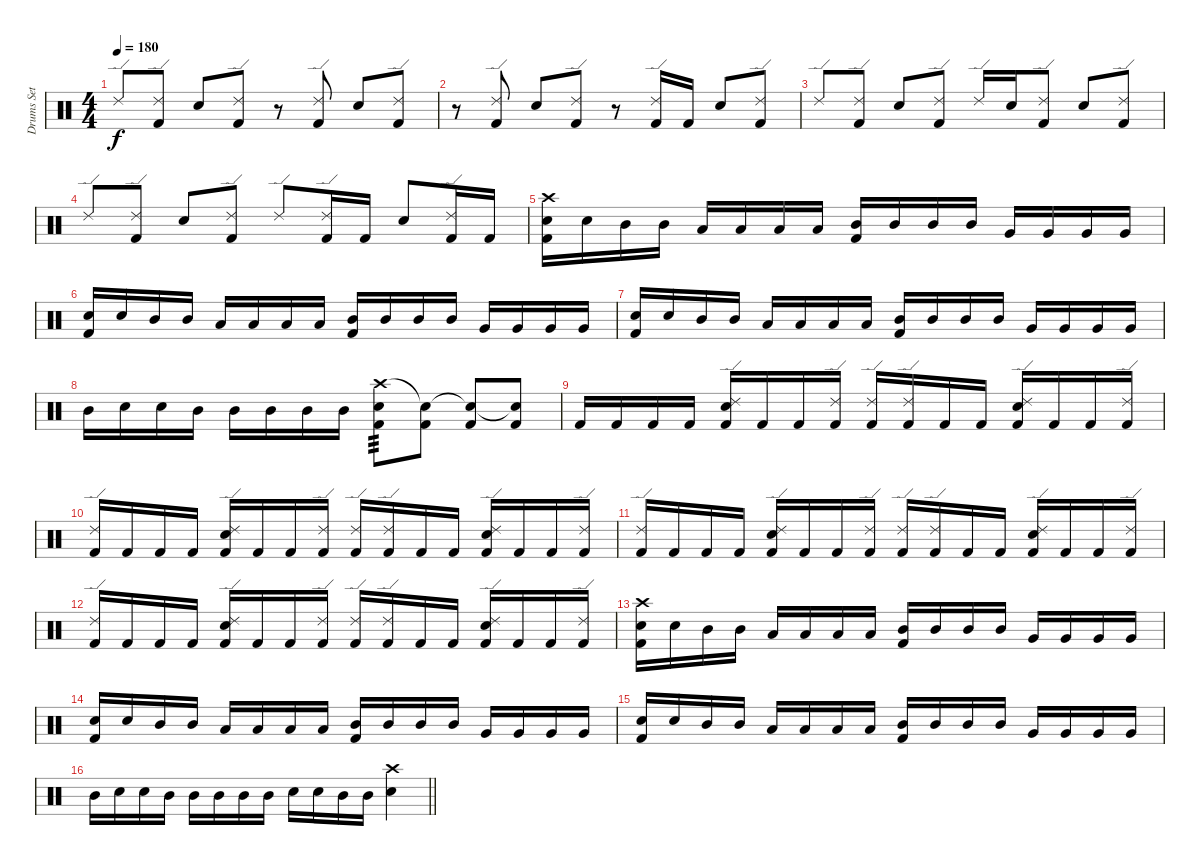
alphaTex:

\track ("Drums Set" "Drums Set") {instrument percussion}
\staff {score}
\articulation defaults
\ts (4 4)
\tempo 180
\clef neutral
\ks c "Ride (edge) 2".8{dy f}
("Ride (edge) 2" "Kick (hit) 2").8 "Snare (hit) 2".8 ("Ride (edge) 2" "Kick (hit) 2").8 r.8 ("Ride (edge) 2" "Kick (hit) 2").8 "Snare (hit) 2".8 ("Ride (edge) 2" "Kick (hit) 2").8 |
r.8 ("Ride (edge) 2" "Kick (hit) 2").8 "Snare (hit) 2".8 ("Ride (edge) 2" "Kick (hit) 2").8 r.8 ("Ride (edge) 2" "Kick (hit) 2").16 "Kick (hit) 2".16 "Snare (hit) 2".8 ("Ride (edge) 2" "Kick (hit) 2").8 |
"Ride (edge) 2".8 ("Ride (edge) 2" "Kick (hit) 2").8 "Snare (hit) 2".8 ("Ride (edge) 2" "Kick (hit) 2").8 "Ride (edge) 2".16 "Snare (hit) 2".16 ("Ride (edge) 2" "Kick (hit) 2").8 "Snare (hit) 2".8 ("Ride (edge) 2" "Kick (hit) 2").8 |
"Ride (edge) 2".8 ("Ride (edge) 2" "Kick (hit) 2").8 "Snare (hit) 2".8 ("Ride (edge) 2" "Kick (hit) 2").8 "Ride (edge) 2".8 ("Ride (edge) 2" "Kick (hit) 2").16 "Kick (hit) 2".16 "Snare (hit) 2".8 ("Ride (edge) 2" "Kick (hit) 2").16 "Kick (hit) 2".16 |
("Crash high (hit)" "Snare (hit) 2" "Kick (hit) 2").16 "Snare (hit) 2".16 "Mid Tom (hit)".16 "Mid Tom (hit)".16 "Low Tom (hit)".16 "Low Tom (hit)".16 "Low Tom (hit)".16 "Low Tom (hit)".16 ("Mid Tom (hit)" "Kick (hit) 2").16 "Mid Tom (hit)".16 "Mid Tom (hit)".16 "Mid Tom (hit)".16 "Very Low Tom (hit)".16 "Very Low Tom (hit)".16 "Very Low Tom (hit)".16 "Very Low Tom (hit)".16 |
("Snare (hit) 2" "Kick (hit) 2").16 "Snare (hit) 2".16 "Mid Tom (hit)".16 "Mid Tom (hit)".16 "Low Tom (hit)".16 "Low Tom (hit)".16 "Low Tom (hit)".16 "Low Tom (hit)".16 ("Mid Tom (hit)" "Kick (hit) 2").16 "Mid Tom (hit)".16 "Mid Tom (hit)".16 "Mid Tom (hit)".16 "Very Low Tom (hit)".16 "Very Low Tom (hit)".16 "Very Low Tom (hit)".16 "Very Low Tom (hit)".16 |
("Snare (hit) 2" "Kick (hit) 2").16 "Snare (hit) 2".16 "Mid Tom (hit)".16 "Mid Tom (hit)".16 "Low Tom (hit)".16 "Low Tom (hit)".16 "Low Tom (hit)".16 "Low Tom (hit)".16 ("Mid Tom (hit)" "Kick (hit) 2").16 "Mid Tom (hit)".16 "Mid Tom (hit)".16 "Mid Tom (hit)".16 "Very Low Tom (hit)".16 "Very Low Tom (hit)".16 "Very Low Tom (hit)".16 "Very Low Tom (hit)".16 |
"Mid Tom (hit)".16 "Snare (hit) 2".16 "Snare (hit) 2".16 "Mid Tom (hit)".16 "Mid Tom (hit)".16 "Mid Tom (hit)".16 "Mid Tom (hit)".16 "Mid Tom (hit)".16 ("Crash high (hit)" "Snare (hit) 2" "Kick (hit) 2").8{tp 3} ("Snare (hit)"{t} "Kick (hit) 2").8 ("Snare (hit)"{t} "Kick (hit) 2").8 ("Snare (hit)"{t} "Kick (hit) 2").8 |
"Kick (hit) 2".16 "Kick (hit) 2".16 "Kick (hit) 2".16 "Kick (hit) 2".16 ("Ride (edge) 2" "Snare (hit) 2" "Kick (hit) 2").16 "Kick (hit) 2".16 "Kick (hit) 2".16 ("Ride (edge) 2" "Kick (hit) 2").16 ("Ride (edge) 2" "Kick (hit) 2").16 ("Ride (edge) 2" "Kick (hit) 2").16 "Kick (hit) 2".16 "Kick (hit) 2".16 ("Ride (edge) 2" "Snare (hit) 2" "Kick (hit) 2").16 "Kick (hit) 2".16 "Kick (hit) 2".16 ("Ride (edge) 2" "Kick (hit) 2").16 |
("Ride (edge) 2" "Kick (hit) 2").16 "Kick (hit) 2".16 "Kick (hit) 2".16 "Kick (hit) 2".16 ("Ride (edge) 2" "Snare (hit) 2" "Kick (hit) 2").16 "Kick (hit) 2".16 "Kick (hit) 2".16 ("Ride (edge) 2" "Kick (hit) 2").16 ("Ride (edge) 2" "Kick (hit) 2").16 ("Ride (edge) 2" "Kick (hit) 2").16 "Kick (hit) 2".16 "Kick (hit) 2".16 ("Ride (edge) 2" "Snare (hit) 2" "Kick (hit) 2").16 "Kick (hit) 2".16 "Kick (hit) 2".16 ("Ride (edge) 2" "Kick (hit) 2").16 |
("Ride (edge) 2" "Kick (hit) 2").16 "Kick (hit) 2".16 "Kick (hit) 2".16 "Kick (hit) 2".16 ("Ride (edge) 2" "Snare (hit) 2" "Kick (hit) 2").16 "Kick (hit) 2".16 "Kick (hit) 2".16 ("Ride (edge) 2" "Kick (hit) 2").16 ("Ride (edge) 2" "Kick (hit) 2").16 ("Ride (edge) 2" "Kick (hit) 2").16 "Kick (hit) 2".16 "Kick (hit) 2".16 ("Ride (edge) 2" "Snare (hit) 2" "Kick (hit) 2").16 "Kick (hit) 2".16 "Kick (hit) 2".16 ("Ride (edge) 2" "Kick (hit) 2").16 |
("Ride (edge) 2" "Kick (hit) 2").16 "Kick (hit) 2".16 "Kick (hit) 2".16 "Kick (hit) 2".16 ("Ride (edge) 2" "Snare (hit) 2" "Kick (hit) 2").16 "Kick (hit) 2".16 "Kick (hit) 2".16 ("Ride (edge) 2" "Kick (hit) 2").16 ("Ride (edge) 2" "Kick (hit) 2").16 ("Ride (edge) 2" "Kick (hit) 2").16 "Kick (hit) 2".16 "Kick (hit) 2".16 ("Ride (edge) 2" "Snare (hit) 2" "Kick (hit) 2").16 "Kick (hit) 2".16 "Kick (hit) 2".16 ("Ride (edge) 2" "Kick (hit) 2").16 |
("Crash high (hit)" "Snare (hit) 2" "Kick (hit) 2").16 "Snare (hit) 2".16 "Mid Tom (hit)".16 "Mid Tom (hit)".16 "Low Tom (hit)".16 "Low Tom (hit)".16 "Low Tom (hit)".16 "Low Tom (hit)".16 ("Mid Tom (hit)" "Kick (hit) 2").16 "Mid Tom (hit)".16 "Mid Tom (hit)".16 "Mid Tom (hit)".16 "Very Low Tom (hit)".16 "Very Low Tom (hit)".16 "Very Low Tom (hit)".16 "Very Low Tom (hit)".16 |
("Snare (hit) 2" "Kick (hit) 2").16 "Snare (hit) 2".16 "Mid Tom (hit)".16 "Mid Tom (hit)".16 "Low Tom (hit)".16 "Low Tom (hit)".16 "Low Tom (hit)".16 "Low Tom (hit)".16 ("Mid Tom (hit)" "Kick (hit) 2").16 "Mid Tom (hit)".16 "Mid Tom (hit)".16 "Mid Tom (hit)".16 "Very Low Tom (hit)".16 "Very Low Tom (hit)".16 "Very Low Tom (hit)".16 "Very Low Tom (hit)".16 |
("Snare (hit) 2" "Kick (hit) 2").16 "Snare (hit) 2".16 "Mid Tom (hit)".16 "Mid Tom (hit)".16 "Low Tom (hit)".16 "Low Tom (hit)".16 "Low Tom (hit)".16 "Low Tom (hit)".16 ("Mid Tom (hit)" "Kick (hit) 2").16 "Mid Tom (hit)".16 "Mid Tom (hit)".16 "Mid Tom (hit)".16 "Very Low Tom (hit)".16 "Very Low Tom (hit)".16 "Very Low Tom (hit)".16 "Very Low Tom (hit)".16 |
\barLineRight lightlight "Mid Tom (hit)".16 "Snare (hit) 2".16 "Snare (hit) 2".16 "Mid Tom (hit)".16 "Mid Tom (hit)".16 "Mid Tom (hit)".16 "Mid Tom (hit)".16 "Mid Tom (hit)".16 "Snare (hit) 2".16 "Snare (hit) 2".16 "Mid Tom (hit)".16 "Mid Tom (hit)".16
("Crash high (hit)" "Snare (hit) 2").4
